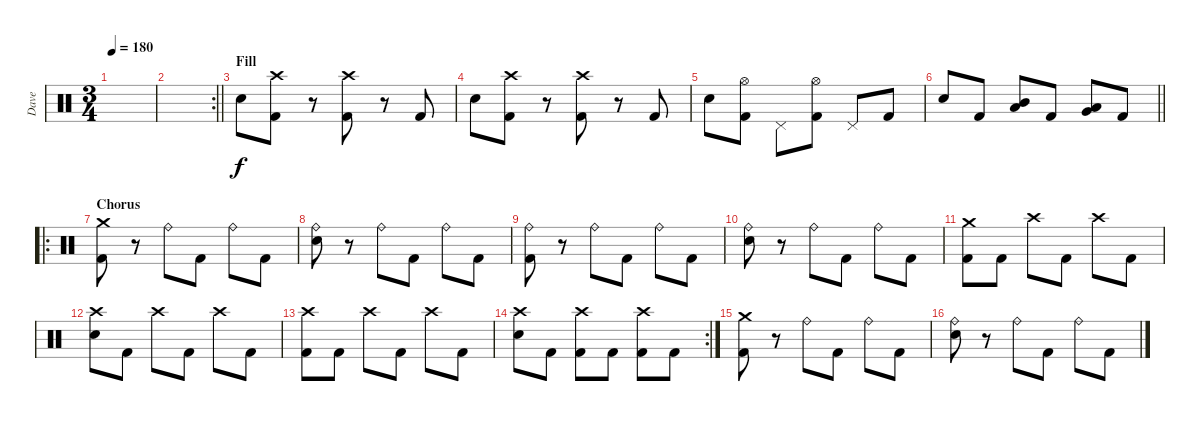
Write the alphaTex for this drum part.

\track ("Dave" "Dave") {instrument percussion}
\staff {score}
\articulation defaults
\ts (3 4)
\tempo 180
\clef neutral
\ks c
|
\rc 2
\barLineRight lightlight
|
\section ("" "Fill")
"Electric Snare (hit)".8 ("Kick (hit) 2" "Crash high (hit)").8 r.8 ("Kick (hit) 2" "Crash high (hit)").8 r.8 "Kick (hit) 2".8 |
"Electric Snare (hit)".8 ("Kick (hit) 2" "Crash high (hit)").8 r.8 ("Kick (hit) 2" "Crash high (hit)").8 r.8 "Kick (hit) 2".8 |
"Electric Snare (hit)".8 ("Kick (hit) 2" "Hi-Hat (open)").8 "Pedal Hi-Hat (hit)".8 ("Kick (hit) 2" "Hi-Hat (open)").8 "Pedal Hi-Hat (hit)".8 "Kick (hit) 2".8 |
\barLineRight lightlight "Electric Snare (hit)".8 "Kick (hit) 2".8
("Mid Tom (hit)" "Low Tom (hit)").8 "Kick (hit) 2".8 ("Low Tom (hit)" "Very Low Tom (hit)").8 "Kick (hit) 2".8 |
\ro
\section ("" "Chorus")
("Kick (hit) 2" "Crash medium (hit)").8 r.8 "Ride (bell)".8 "Kick (hit) 2".8 "Ride (bell)".8 "Kick (hit) 2".8 |
("Electric Snare (hit)" "Ride (bell)").8 r.8 "Ride (bell)".8 "Kick (hit) 2".8 "Ride (bell)".8 "Kick (hit) 2".8 |
("Kick (hit) 2" "Ride (bell)").8 r.8 "Ride (bell)".8 "Kick (hit) 2".8 "Ride (bell)".8 "Kick (hit) 2".8 |
("Electric Snare (hit)" "Ride (bell)").8 r.8 "Ride (bell)".8 "Kick (hit) 2".8 "Ride (bell)".8 "Kick (hit) 2".8 |
("Kick (hit) 2" "Crash medium (hit)").8 "Kick (hit) 2".8 "Crash high (hit)".8 "Kick (hit) 2".8 "Crash high (hit)".8 "Kick (hit) 2".8 |
("Electric Snare (hit)" "Crash high (hit)").8 "Kick (hit) 2".8 "Crash high (hit)".8 "Kick (hit) 2".8 "Crash high (hit)".8 "Kick (hit) 2".8 |
("Kick (hit) 2" "Crash high (hit)").8 "Kick (hit) 2".8 "Crash high (hit)".8 "Kick (hit) 2".8 "Crash high (hit)".8 "Kick (hit) 2".8 |
\rc 2
("Electric Snare (hit)" "Crash high (hit)").8 "Kick (hit) 2".8 ("Kick (hit) 2" "Crash high (hit)").8 "Kick (hit) 2".8 ("Kick (hit) 2" "Crash high (hit)").8 "Kick (hit) 2".8 |
("Kick (hit) 2" "Crash medium (hit)").8 r.8 "Ride (bell)".8 "Kick (hit) 2".8 "Ride (bell)".8 "Kick (hit) 2".8 |
("Electric Snare (hit)" "Ride (bell)").8 r.8 "Ride (bell)".8 "Kick (hit) 2".8 "Ride (bell)".8 "Kick (hit) 2".8
